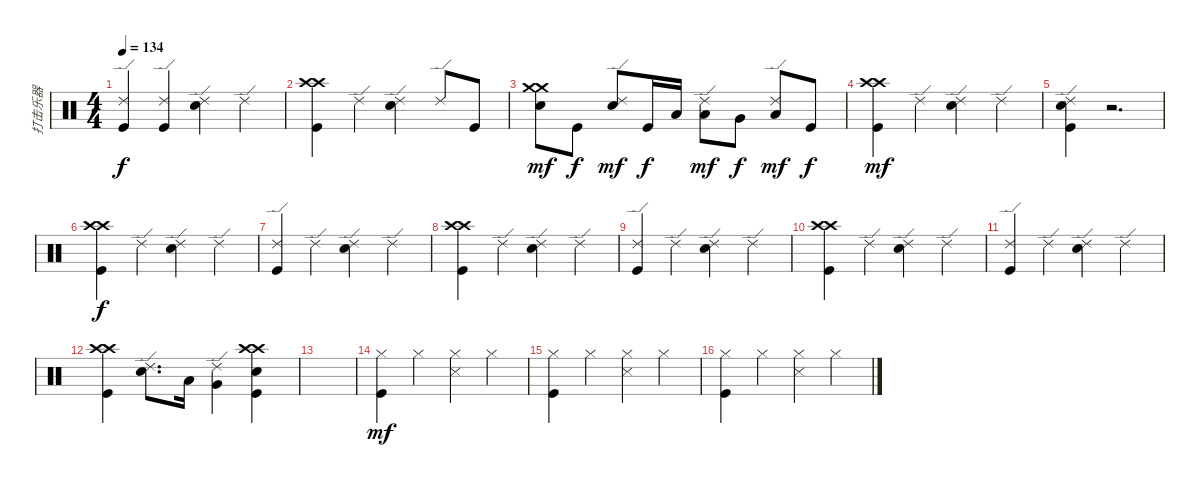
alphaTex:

\track ("打击乐器" "打击乐器") {instrument percussion}
\staff {score}
\articulation defaults
\ts (4 4)
\tempo 134
\clef neutral
\ks c
("Ride (edge) 2" "Kick (hit)").4{dy f} ("Ride (edge) 2" "Kick (hit)").4 ("Ride (edge) 2" "Electric Snare (hit)").4 "Ride (edge) 2".4 |
("Crash high (hit)" "Crash high (hit)" "Kick (hit)").4 "Ride (edge) 2".4 ("Ride (edge) 2" "Electric Snare (hit)").4 "Ride (edge) 2".8 "Kick (hit)".8 |
("Crash medium (hit)" "Crash medium (hit)" "Electric Snare (hit)").8{dy mf} "Kick (hit)".8{dy f} ("Ride (edge) 2" "Electric Snare (hit)").8{dy mf} "Kick (hit)".16{dy f} "Low Tom (hit)".16 ("Ride (edge) 2" "Low Tom (hit)").8{dy mf} "Very Low Tom (hit)".8{dy f} ("Ride (edge) 2" "Low Floor Tom (hit)").8{dy mf} "Kick (hit)".8{dy f} |
("Crash high (hit)" "Crash high (hit)" "Kick (hit)").4{dy mf} "Ride (edge) 2".4 ("Ride (edge) 2" "Electric Snare (hit)").4 "Ride (edge) 2".4 |
("Ride (edge) 2" "Electric Snare (hit)" "Kick (hit)").4 r.2{d} |
("Crash high (hit)" "Crash high (hit)" "Kick (hit)").4{dy f} "Ride (edge) 2".4 ("Ride (edge) 2" "Electric Snare (hit)").4 "Ride (edge) 2".4 |
("Ride (edge) 2" "Kick (hit)").4 "Ride (edge) 2".4 ("Ride (edge) 2" "Electric Snare (hit)").4 "Ride (edge) 2".4 |
("Crash high (hit)" "Crash high (hit)" "Kick (hit)").4 "Ride (edge) 2".4 ("Ride (edge) 2" "Electric Snare (hit)").4 "Ride (edge) 2".4 |
("Ride (edge) 2" "Kick (hit)").4 "Ride (edge) 2".4 ("Ride (edge) 2" "Electric Snare (hit)").4 "Ride (edge) 2".4 |
("Crash high (hit)" "Crash high (hit)" "Kick (hit)").4 "Ride (edge) 2".4 ("Ride (edge) 2" "Electric Snare (hit)").4 "Ride (edge) 2".4 |
("Ride (edge) 2" "Kick (hit)").4 "Ride (edge) 2".4 ("Ride (edge) 2" "Electric Snare (hit)").4 "Ride (edge) 2".4 |
("Crash high (hit)" "Crash high (hit)" "Kick (hit)").4 ("Ride (edge) 2" "Electric Snare (hit)").8{d} "Low Tom (hit)".16 ("Ride (edge) 2" "Very Low Tom (hit)").4 ("Crash high (hit)" "Crash high (hit)" "Kick (hit)" "Electric Snare (hit)").4 |
|
("Hi-Hat (closed)" "Kick (hit)").4{dy mf} "Hi-Hat (closed)".4 ("Hi-Hat (closed)" "Snare (side stick) 3").4 "Hi-Hat (closed)".4 |
("Hi-Hat (closed)" "Kick (hit)").4 "Hi-Hat (closed)".4 ("Hi-Hat (closed)" "Snare (side stick) 3").4 "Hi-Hat (closed)".4 |
("Hi-Hat (closed)" "Kick (hit)").4 "Hi-Hat (closed)".4 ("Hi-Hat (closed)" "Snare (side stick) 3").4 "Hi-Hat (closed)".4
